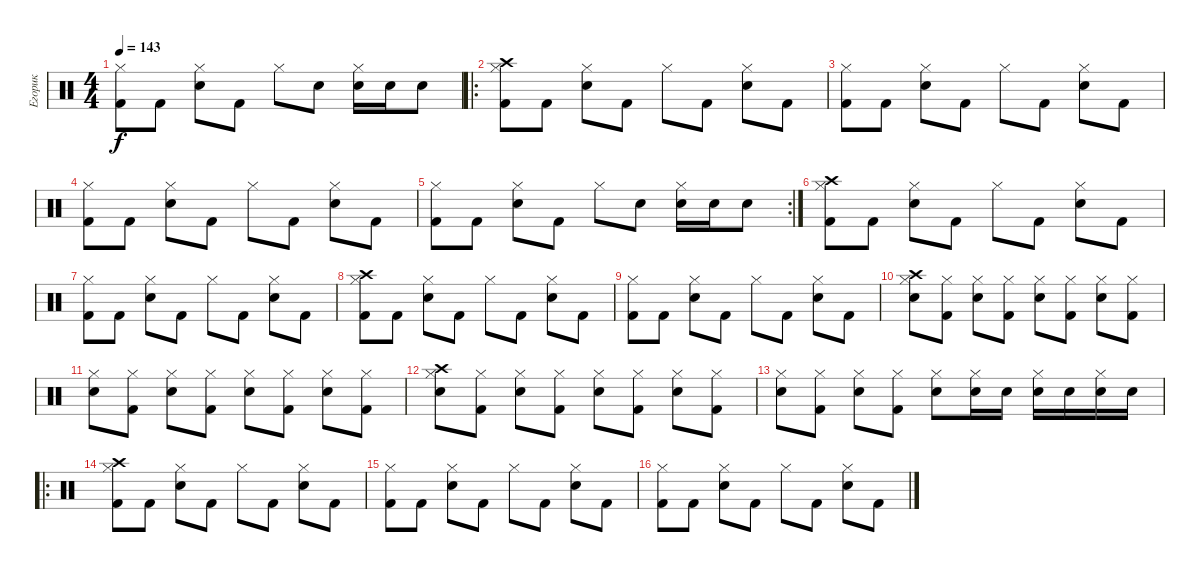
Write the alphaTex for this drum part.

\track ("Егорик" "Егорик") {instrument percussion}
\staff {score}
\articulation defaults
\ts (4 4)
\tempo 143
\clef neutral
\ks c
("Hi-Hat (closed)" "Kick (hit) 2").8{dy f} "Kick (hit) 2".8 ("Hi-Hat (closed)" "Electric Snare (hit)").8 "Kick (hit) 2".8 "Hi-Hat (closed)".8 "Electric Snare (hit)".8 ("Hi-Hat (closed)" "Electric Snare (hit)").16 "Electric Snare (hit)".16 "Electric Snare (hit)".8 |
\ro
("Hi-Hat (closed)" "Crash high (hit)" "Kick (hit) 2").8 "Kick (hit) 2".8 ("Hi-Hat (closed)" "Electric Snare (hit)").8 "Kick (hit) 2".8 "Hi-Hat (closed)".8 "Kick (hit) 2".8 ("Hi-Hat (closed)" "Electric Snare (hit)").8 "Kick (hit) 2".8 |
("Hi-Hat (closed)" "Kick (hit) 2").8 "Kick (hit) 2".8 ("Hi-Hat (closed)" "Electric Snare (hit)").8 "Kick (hit) 2".8 "Hi-Hat (closed)".8 "Kick (hit) 2".8 ("Hi-Hat (closed)" "Electric Snare (hit)").8 "Kick (hit) 2".8 |
("Hi-Hat (closed)" "Kick (hit) 2").8 "Kick (hit) 2".8 ("Hi-Hat (closed)" "Electric Snare (hit)").8 "Kick (hit) 2".8 "Hi-Hat (closed)".8 "Kick (hit) 2".8 ("Hi-Hat (closed)" "Electric Snare (hit)").8 "Kick (hit) 2".8 |
\rc 2
("Hi-Hat (closed)" "Kick (hit) 2").8 "Kick (hit) 2".8 ("Hi-Hat (closed)" "Electric Snare (hit)").8 "Kick (hit) 2".8 "Hi-Hat (closed)".8 "Electric Snare (hit)".8 ("Hi-Hat (closed)" "Electric Snare (hit)").16 "Electric Snare (hit)".16 "Electric Snare (hit)".8 |
("Hi-Hat (closed)" "Crash high (hit)" "Kick (hit) 2").8 "Kick (hit) 2".8 ("Hi-Hat (closed)" "Electric Snare (hit)").8 "Kick (hit) 2".8 "Hi-Hat (closed)".8 "Kick (hit) 2".8 ("Hi-Hat (closed)" "Electric Snare (hit)").8 "Kick (hit) 2".8 |
("Hi-Hat (closed)" "Kick (hit) 2").8 "Kick (hit) 2".8 ("Hi-Hat (closed)" "Electric Snare (hit)").8 "Kick (hit) 2".8 "Hi-Hat (closed)".8 "Kick (hit) 2".8 ("Hi-Hat (closed)" "Electric Snare (hit)").8 "Kick (hit) 2".8 |
("Hi-Hat (closed)" "Crash high (hit)" "Kick (hit) 2").8 "Kick (hit) 2".8 ("Hi-Hat (closed)" "Electric Snare (hit)").8 "Kick (hit) 2".8 "Hi-Hat (closed)".8 "Kick (hit) 2".8 ("Hi-Hat (closed)" "Electric Snare (hit)").8 "Kick (hit) 2".8 |
("Hi-Hat (closed)" "Kick (hit) 2").8 "Kick (hit) 2".8 ("Hi-Hat (closed)" "Electric Snare (hit)").8 "Kick (hit) 2".8 "Hi-Hat (closed)".8 "Kick (hit) 2".8 ("Hi-Hat (closed)" "Electric Snare (hit)").8 "Kick (hit) 2".8 |
("Hi-Hat (closed)" "Crash high (hit)" "Electric Snare (hit)").8 ("Hi-Hat (closed)" "Kick (hit) 2").8 ("Hi-Hat (closed)" "Electric Snare (hit)").8 ("Hi-Hat (closed)" "Kick (hit) 2").8 ("Hi-Hat (closed)" "Electric Snare (hit)").8 ("Hi-Hat (closed)" "Kick (hit) 2").8 ("Hi-Hat (closed)" "Electric Snare (hit)").8 ("Hi-Hat (closed)" "Kick (hit) 2").8 |
("Hi-Hat (closed)" "Electric Snare (hit)").8 ("Hi-Hat (closed)" "Kick (hit) 2").8 ("Hi-Hat (closed)" "Electric Snare (hit)").8 ("Hi-Hat (closed)" "Kick (hit) 2").8 ("Hi-Hat (closed)" "Electric Snare (hit)").8 ("Hi-Hat (closed)" "Kick (hit) 2").8 ("Hi-Hat (closed)" "Electric Snare (hit)").8 ("Hi-Hat (closed)" "Kick (hit) 2").8 |
("Hi-Hat (closed)" "Crash high (hit)" "Electric Snare (hit)").8 ("Hi-Hat (closed)" "Kick (hit) 2").8 ("Hi-Hat (closed)" "Electric Snare (hit)").8 ("Hi-Hat (closed)" "Kick (hit) 2").8 ("Hi-Hat (closed)" "Electric Snare (hit)").8 ("Hi-Hat (closed)" "Kick (hit) 2").8 ("Hi-Hat (closed)" "Electric Snare (hit)").8 ("Hi-Hat (closed)" "Kick (hit) 2").8 |
("Hi-Hat (closed)" "Electric Snare (hit)").8 ("Hi-Hat (closed)" "Kick (hit) 2").8 ("Hi-Hat (closed)" "Electric Snare (hit)").8 ("Hi-Hat (closed)" "Kick (hit) 2").8 ("Hi-Hat (closed)" "Electric Snare (hit)").8 ("Hi-Hat (closed)" "Electric Snare (hit)").16 "Electric Snare (hit)".16 ("Hi-Hat (closed)" "Electric Snare (hit)").16 "Electric Snare (hit)".16 ("Hi-Hat (closed)" "Electric Snare (hit)").16 "Electric Snare (hit)".16 |
\ro
("Hi-Hat (closed)" "Crash high (hit)" "Kick (hit) 2").8 "Kick (hit) 2".8 ("Hi-Hat (closed)" "Electric Snare (hit)").8 "Kick (hit) 2".8 "Hi-Hat (closed)".8 "Kick (hit) 2".8 ("Hi-Hat (closed)" "Electric Snare (hit)").8 "Kick (hit) 2".8 |
("Hi-Hat (closed)" "Kick (hit) 2").8 "Kick (hit) 2".8 ("Hi-Hat (closed)" "Electric Snare (hit)").8 "Kick (hit) 2".8 "Hi-Hat (closed)".8 "Kick (hit) 2".8 ("Hi-Hat (closed)" "Electric Snare (hit)").8 "Kick (hit) 2".8 |
("Hi-Hat (closed)" "Kick (hit) 2").8 "Kick (hit) 2".8 ("Hi-Hat (closed)" "Electric Snare (hit)").8 "Kick (hit) 2".8 "Hi-Hat (closed)".8 "Kick (hit) 2".8 ("Hi-Hat (closed)" "Electric Snare (hit)").8 "Kick (hit) 2".8
